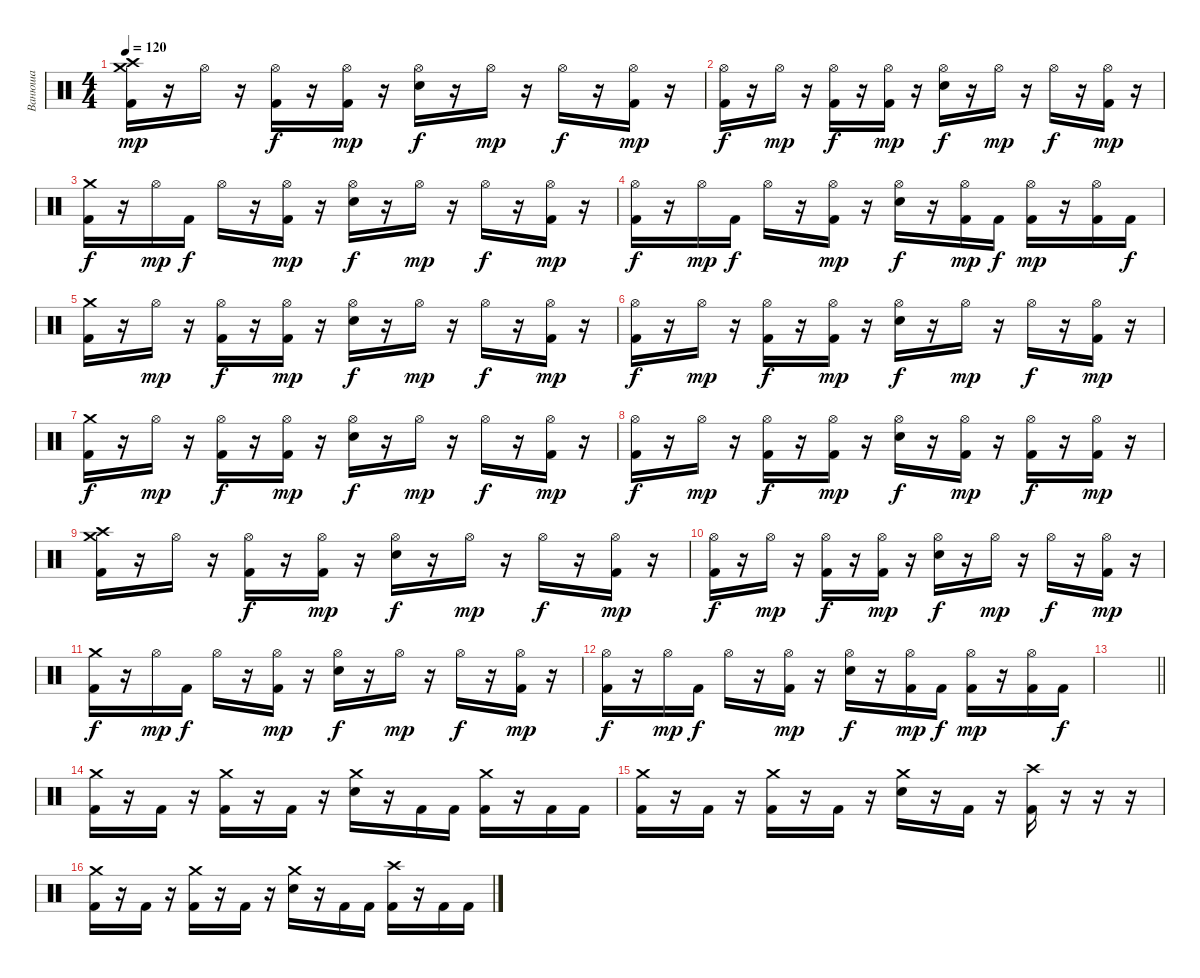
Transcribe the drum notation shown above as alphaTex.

\track ("Ванюша" "Ванюша") {instrument percussion}
\staff {score}
\articulation defaults
\ts (4 4)
\tempo 120
\clef neutral
\ks c
("Crash medium (hit)" "Crash high (hit)" "Kick (hit) 2").16{dy mp} r.16 "Hi-Hat (open)".16 r.16 ("Hi-Hat (open)" "Kick (hit) 2").16{dy f} r.16 ("Hi-Hat (open)" "Kick (hit) 2").16{dy mp} r.16 ("Hi-Hat (open)" "Snare (hit) 2").16{dy f} r.16 "Hi-Hat (open)".16{dy mp} r.16 "Hi-Hat (open)".16{dy f} r.16 ("Hi-Hat (open)" "Kick (hit) 2").16{dy mp} r.16 |
("Hi-Hat (open)" "Kick (hit) 2").16{dy f} r.16 "Hi-Hat (open)".16{dy mp} r.16 ("Hi-Hat (open)" "Kick (hit) 2").16{dy f} r.16 ("Hi-Hat (open)" "Kick (hit) 2").16{dy mp} r.16 ("Hi-Hat (open)" "Snare (hit) 2").16{dy f} r.16 "Hi-Hat (open)".16{dy mp} r.16 "Hi-Hat (open)".16{dy f} r.16 ("Hi-Hat (open)" "Kick (hit) 2").16{dy mp} r.16 |
("Crash medium (hit)" "Kick (hit) 2").16{dy f} r.16 "Hi-Hat (open)".16{dy mp} "Kick (hit) 2".16{dy f} "Hi-Hat (open)".16 r.16 ("Hi-Hat (open)" "Kick (hit) 2").16{dy mp} r.16 ("Hi-Hat (open)" "Snare (hit) 2").16{dy f} r.16 "Hi-Hat (open)".16{dy mp} r.16 "Hi-Hat (open)".16{dy f} r.16 ("Hi-Hat (open)" "Kick (hit) 2").16{dy mp} r.16 |
("Hi-Hat (open)" "Kick (hit) 2").16{dy f} r.16 "Hi-Hat (open)".16{dy mp} "Kick (hit) 2".16{dy f} "Hi-Hat (open)".16 r.16 ("Hi-Hat (open)" "Kick (hit) 2").16{dy mp} r.16 ("Hi-Hat (open)" "Snare (hit) 2").16{dy f} r.16 ("Hi-Hat (open)" "Kick (hit) 2").16{dy mp} "Kick (hit) 2".16{dy f} ("Hi-Hat (open)" "Kick (hit) 2").16{dy mp} r.16 ("Hi-Hat (open)" "Kick (hit) 2").16 "Kick (hit) 2".16{dy f} |
("Crash medium (hit)" "Kick (hit) 2").16 r.16 "Hi-Hat (open)".16{dy mp} r.16 ("Hi-Hat (open)" "Kick (hit) 2").16{dy f} r.16 ("Hi-Hat (open)" "Kick (hit) 2").16{dy mp} r.16 ("Hi-Hat (open)" "Snare (hit) 2").16{dy f} r.16 "Hi-Hat (open)".16{dy mp} r.16 "Hi-Hat (open)".16{dy f} r.16 ("Hi-Hat (open)" "Kick (hit) 2").16{dy mp} r.16 |
("Hi-Hat (open)" "Kick (hit) 2").16{dy f} r.16 "Hi-Hat (open)".16{dy mp} r.16 ("Hi-Hat (open)" "Kick (hit) 2").16{dy f} r.16 ("Hi-Hat (open)" "Kick (hit) 2").16{dy mp} r.16 ("Hi-Hat (open)" "Snare (hit) 2").16{dy f} r.16 "Hi-Hat (open)".16{dy mp} r.16 "Hi-Hat (open)".16{dy f} r.16 ("Hi-Hat (open)" "Kick (hit) 2").16{dy mp} r.16 |
("Crash medium (hit)" "Kick (hit) 2").16{dy f} r.16 "Hi-Hat (open)".16{dy mp} r.16 ("Hi-Hat (open)" "Kick (hit) 2").16{dy f} r.16 ("Hi-Hat (open)" "Kick (hit) 2").16{dy mp} r.16 ("Hi-Hat (open)" "Snare (hit) 2").16{dy f} r.16 "Hi-Hat (open)".16{dy mp} r.16 "Hi-Hat (open)".16{dy f} r.16 ("Hi-Hat (open)" "Kick (hit) 2").16{dy mp} r.16 |
("Hi-Hat (open)" "Kick (hit) 2").16{dy f} r.16 "Hi-Hat (open)".16{dy mp} r.16 ("Hi-Hat (open)" "Kick (hit) 2").16{dy f} r.16 ("Hi-Hat (open)" "Kick (hit) 2").16{dy mp} r.16 ("Hi-Hat (open)" "Snare (hit) 2").16{dy f} r.16 ("Hi-Hat (open)" "Kick (hit) 2").16{dy mp} r.16 ("Hi-Hat (open)" "Kick (hit) 2").16{dy f} r.16 ("Hi-Hat (open)" "Kick (hit) 2").16{dy mp} r.16 |
("Crash medium (hit)" "Crash high (hit)" "Kick (hit) 2").16 r.16 "Hi-Hat (open)".16 r.16 ("Hi-Hat (open)" "Kick (hit) 2").16{dy f} r.16 ("Hi-Hat (open)" "Kick (hit) 2").16{dy mp} r.16 ("Hi-Hat (open)" "Snare (hit) 2").16{dy f} r.16 "Hi-Hat (open)".16{dy mp} r.16 "Hi-Hat (open)".16{dy f} r.16 ("Hi-Hat (open)" "Kick (hit) 2").16{dy mp} r.16 |
("Hi-Hat (open)" "Kick (hit) 2").16{dy f} r.16 "Hi-Hat (open)".16{dy mp} r.16 ("Hi-Hat (open)" "Kick (hit) 2").16{dy f} r.16 ("Hi-Hat (open)" "Kick (hit) 2").16{dy mp} r.16 ("Hi-Hat (open)" "Snare (hit) 2").16{dy f} r.16 "Hi-Hat (open)".16{dy mp} r.16 "Hi-Hat (open)".16{dy f} r.16 ("Hi-Hat (open)" "Kick (hit) 2").16{dy mp} r.16 |
("Crash medium (hit)" "Kick (hit) 2").16{dy f} r.16 "Hi-Hat (open)".16{dy mp} "Kick (hit) 2".16{dy f} "Hi-Hat (open)".16 r.16 ("Hi-Hat (open)" "Kick (hit) 2").16{dy mp} r.16 ("Hi-Hat (open)" "Snare (hit) 2").16{dy f} r.16 "Hi-Hat (open)".16{dy mp} r.16 "Hi-Hat (open)".16{dy f} r.16 ("Hi-Hat (open)" "Kick (hit) 2").16{dy mp} r.16 |
("Hi-Hat (open)" "Kick (hit) 2").16{dy f} r.16 "Hi-Hat (open)".16{dy mp} "Kick (hit) 2".16{dy f} "Hi-Hat (open)".16 r.16 ("Hi-Hat (open)" "Kick (hit) 2").16{dy mp} r.16 ("Hi-Hat (open)" "Snare (hit) 2").16{dy f} r.16 ("Hi-Hat (open)" "Kick (hit) 2").16{dy mp} "Kick (hit) 2".16{dy f} ("Hi-Hat (open)" "Kick (hit) 2").16{dy mp} r.16 ("Hi-Hat (open)" "Kick (hit) 2").16 "Kick (hit) 2".16{dy f} |
\barLineRight lightlight
|
("Crash medium (hit)" "Kick (hit) 2").16 r.16 "Kick (hit) 2".16 r.16 ("Crash medium (hit)" "Kick (hit) 2").16 r.16 "Kick (hit) 2".16 r.16 ("Crash medium (hit)" "Snare (hit) 2").16 r.16 "Kick (hit) 2".16 "Kick (hit) 2".16 ("Crash medium (hit)" "Kick (hit) 2").16 r.16 "Kick (hit) 2".16 "Kick (hit) 2".16 |
("Crash medium (hit)" "Kick (hit) 2").16 r.16 "Kick (hit) 2".16 r.16 ("Crash medium (hit)" "Kick (hit) 2").16 r.16 "Kick (hit) 2".16 r.16 ("Crash medium (hit)" "Snare (hit) 2").16 r.16 "Kick (hit) 2".16 r.16 ("Crash high (hit)" "Kick (hit) 2").16 r.16 r.16 r.16 |
("Crash medium (hit)" "Kick (hit) 2").16 r.16 "Kick (hit) 2".16 r.16 ("Crash medium (hit)" "Kick (hit) 2").16 r.16 "Kick (hit) 2".16 r.16 ("Crash medium (hit)" "Snare (hit) 2").16 r.16 "Kick (hit) 2".16 "Kick (hit) 2".16 ("Crash high (hit)" "Kick (hit) 2").16 r.16 "Kick (hit) 2".16 "Kick (hit) 2".16
